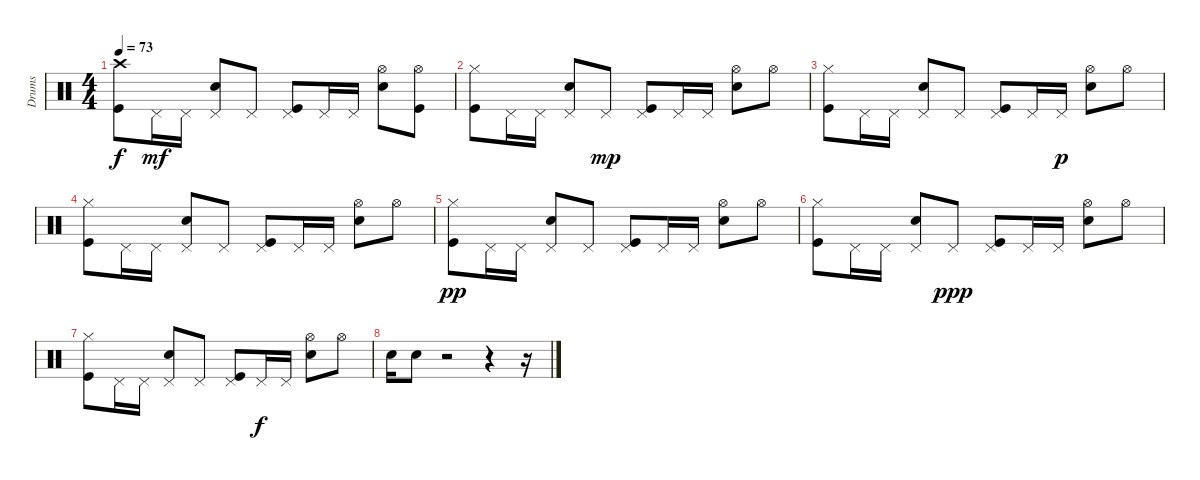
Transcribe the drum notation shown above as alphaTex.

\track ("Drums" "Drums") {instrument percussion}
\staff {score}
\articulation defaults
\ts (4 4)
\tempo 73
\clef neutral
\ks c
("Crash high (hit)" "Kick (hit)").8{dy f} "Pedal Hi-Hat (hit)".16{dy mf} "Pedal Hi-Hat (hit)".16 ("Snare (hit) 2" "Pedal Hi-Hat (hit)").8 "Pedal Hi-Hat (hit)".8 ("Kick (hit)" "Pedal Hi-Hat (hit)").8 "Pedal Hi-Hat (hit)".16 "Pedal Hi-Hat (hit)".16 ("Hi-Hat (open)" "Snare (hit) 2").8 ("Kick (hit)" "Hi-Hat (open)").8 |
("Hi-Hat (closed)" "Kick (hit)").8 "Pedal Hi-Hat (hit)".16 "Pedal Hi-Hat (hit)".16 ("Snare (hit) 2" "Pedal Hi-Hat (hit)").8 "Pedal Hi-Hat (hit)".8{dy mp} ("Kick (hit)" "Pedal Hi-Hat (hit)").8 "Pedal Hi-Hat (hit)".16 "Pedal Hi-Hat (hit)".16 ("Hi-Hat (open)" "Snare (hit) 2").8 "Hi-Hat (open)".8 |
("Hi-Hat (closed)" "Kick (hit)").8 "Pedal Hi-Hat (hit)".16 "Pedal Hi-Hat (hit)".16 ("Snare (hit) 2" "Pedal Hi-Hat (hit)").8 "Pedal Hi-Hat (hit)".8 ("Kick (hit)" "Pedal Hi-Hat (hit)").8 "Pedal Hi-Hat (hit)".16 "Pedal Hi-Hat (hit)".16{dy p} ("Hi-Hat (open)" "Snare (hit) 2").8 "Hi-Hat (open)".8 |
("Hi-Hat (closed)" "Kick (hit)").8 "Pedal Hi-Hat (hit)".16 "Pedal Hi-Hat (hit)".16 ("Snare (hit) 2" "Pedal Hi-Hat (hit)").8 "Pedal Hi-Hat (hit)".8 ("Kick (hit)" "Pedal Hi-Hat (hit)").8 "Pedal Hi-Hat (hit)".16 "Pedal Hi-Hat (hit)".16 ("Hi-Hat (open)" "Snare (hit) 2").8 "Hi-Hat (open)".8 |
("Hi-Hat (closed)" "Kick (hit)").8{dy pp} "Pedal Hi-Hat (hit)".16 "Pedal Hi-Hat (hit)".16 ("Snare (hit) 2" "Pedal Hi-Hat (hit)").8 "Pedal Hi-Hat (hit)".8 ("Kick (hit)" "Pedal Hi-Hat (hit)").8 "Pedal Hi-Hat (hit)".16 "Pedal Hi-Hat (hit)".16 ("Hi-Hat (open)" "Snare (hit) 2").8 "Hi-Hat (open)".8 |
("Hi-Hat (closed)" "Kick (hit)").8 "Pedal Hi-Hat (hit)".16 "Pedal Hi-Hat (hit)".16 ("Snare (hit) 2" "Pedal Hi-Hat (hit)").8 "Pedal Hi-Hat (hit)".8{dy ppp} ("Kick (hit)" "Pedal Hi-Hat (hit)").8 "Pedal Hi-Hat (hit)".16 "Pedal Hi-Hat (hit)".16 ("Hi-Hat (open)" "Snare (hit) 2").8 "Hi-Hat (open)".8 |
("Hi-Hat (closed)" "Kick (hit)").8 "Pedal Hi-Hat (hit)".16 "Pedal Hi-Hat (hit)".16 ("Snare (hit) 2" "Pedal Hi-Hat (hit)").8 "Pedal Hi-Hat (hit)".8 ("Kick (hit)" "Pedal Hi-Hat (hit)").8 "Pedal Hi-Hat (hit)".16{dy f} "Pedal Hi-Hat (hit)".16 ("Hi-Hat (open)" "Snare (hit) 2").8 "Hi-Hat (open)".8 |
"Snare (hit) 2".16 "Snare (hit) 2".8 r.2 r.4 r.16
